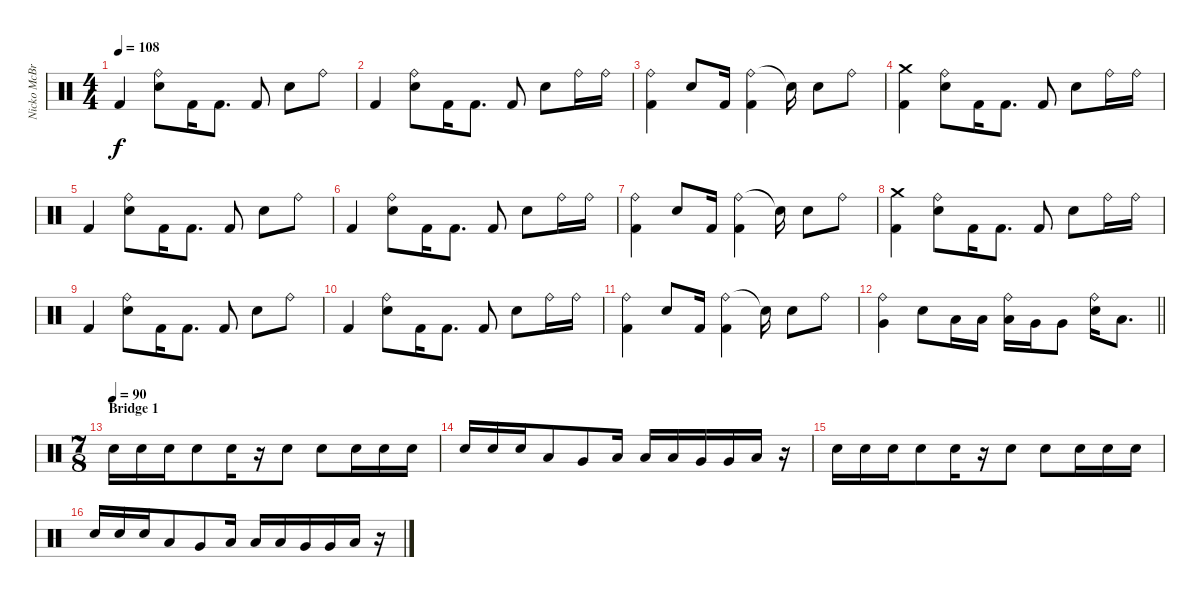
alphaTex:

\track ("Nicko McBrain" "Nicko McBr") {instrument percussion}
\staff {score}
\articulation defaults
\ts (4 4)
\tempo 108
\clef neutral
\ks c "Kick (hit) 2".4{dy f}
("Ride (bell)" "Electric Snare (hit)").8 "Kick (hit) 2".16 "Kick (hit) 2".8{d} "Kick (hit) 2".8 "Electric Snare (hit)".8 "Ride (bell)".8 |
"Kick (hit) 2".4 ("Ride (bell)" "Electric Snare (hit)").8 "Kick (hit) 2".16 "Kick (hit) 2".8{d} "Kick (hit) 2".8 "Electric Snare (hit)".8 "Ride (bell)".16 "Ride (bell)".16 |
("Ride (bell)" "Kick (hit) 2").4 "Electric Snare (hit)".8 "Kick (hit) 2".16 ("Ride (bell)" "Kick (hit) 2").4 "Snare (hit)"{t}.16 "Electric Snare (hit)".8 "Ride (bell)".8 |
("Crash medium (hit)" "Kick (hit) 2").4 ("Ride (bell)" "Electric Snare (hit)").8 "Kick (hit) 2".16 "Kick (hit) 2".8{d} "Kick (hit) 2".8 "Electric Snare (hit)".8 "Ride (bell)".16 "Ride (bell)".16 |
"Kick (hit) 2".4 ("Ride (bell)" "Electric Snare (hit)").8 "Kick (hit) 2".16 "Kick (hit) 2".8{d} "Kick (hit) 2".8 "Electric Snare (hit)".8 "Ride (bell)".8 |
"Kick (hit) 2".4 ("Ride (bell)" "Electric Snare (hit)").8 "Kick (hit) 2".16 "Kick (hit) 2".8{d} "Kick (hit) 2".8 "Electric Snare (hit)".8 "Ride (bell)".16 "Ride (bell)".16 |
("Ride (bell)" "Kick (hit) 2").4 "Electric Snare (hit)".8 "Kick (hit) 2".16 ("Ride (bell)" "Kick (hit) 2").4 "Snare (hit)"{t}.16 "Electric Snare (hit)".8 "Ride (bell)".8 |
("Crash medium (hit)" "Kick (hit) 2").4 ("Ride (bell)" "Electric Snare (hit)").8 "Kick (hit) 2".16 "Kick (hit) 2".8{d} "Kick (hit) 2".8 "Electric Snare (hit)".8 "Ride (bell)".16 "Ride (bell)".16 |
"Kick (hit) 2".4 ("Ride (bell)" "Electric Snare (hit)").8 "Kick (hit) 2".16 "Kick (hit) 2".8{d} "Kick (hit) 2".8 "Electric Snare (hit)".8 "Ride (bell)".8 |
"Kick (hit) 2".4 ("Ride (bell)" "Electric Snare (hit)").8 "Kick (hit) 2".16 "Kick (hit) 2".8{d} "Kick (hit) 2".8 "Electric Snare (hit)".8 "Ride (bell)".16 "Ride (bell)".16 |
("Ride (bell)" "Kick (hit) 2").4 "Electric Snare (hit)".8 "Kick (hit) 2".16 ("Ride (bell)" "Kick (hit) 2").4 "Snare (hit)"{t}.16 "Electric Snare (hit)".8 "Ride (bell)".8 |
\barLineRight lightlight
("Ride (bell)" "Very Low Tom (hit)").4 "Electric Snare (hit)".8 "Low Tom (hit)".16 "Low Tom (hit)".16 ("Ride (bell)" "Low Tom (hit)").16 "Very Low Tom (hit)".16 "Very Low Tom (hit)".8 ("Ride (bell)" "Electric Snare (hit)").16 "Low Floor Tom (hit)".8{d} |
\ts (7 8)
\section ("" "Bridge 1")
\tempo (90)
"Electric Snare (hit)".16 "Electric Snare (hit)".16 "Electric Snare (hit)".16 "Electric Snare (hit)".8 "Electric Snare (hit)".16 r.16 "Electric Snare (hit)".8 "Electric Snare (hit)".8 "Electric Snare (hit)".16 "Electric Snare (hit)".16 "Electric Snare (hit)".16 |
"Electric Snare (hit)".16 "Electric Snare (hit)".16 "Electric Snare (hit)".16 "Low Tom (hit)".8 "Very Low Tom (hit)".8 "Low Floor Tom (hit)".16 "Low Tom (hit)".16 "Low Tom (hit)".16 "Very Low Tom (hit)".16 "Very Low Tom (hit)".16 "Low Floor Tom (hit)".16 r.16 |
"Electric Snare (hit)".16 "Electric Snare (hit)".16 "Electric Snare (hit)".16 "Electric Snare (hit)".8 "Electric Snare (hit)".16 r.16 "Electric Snare (hit)".8 "Electric Snare (hit)".8 "Electric Snare (hit)".16 "Electric Snare (hit)".16 "Electric Snare (hit)".16 |
"Electric Snare (hit)".16 "Electric Snare (hit)".16 "Electric Snare (hit)".16 "Low Tom (hit)".8 "Very Low Tom (hit)".8 "Low Floor Tom (hit)".16 "Low Tom (hit)".16 "Low Tom (hit)".16 "Very Low Tom (hit)".16 "Very Low Tom (hit)".16 "Low Floor Tom (hit)".16 r.16
